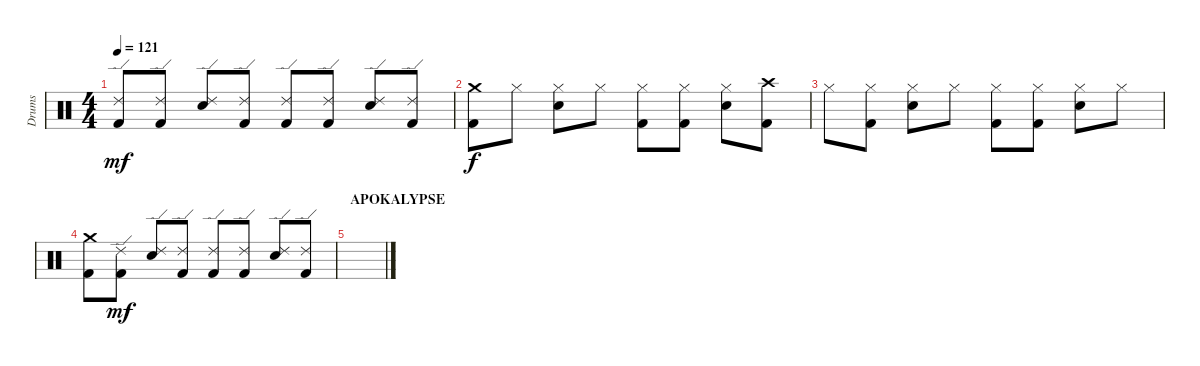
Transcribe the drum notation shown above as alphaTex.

\track ("Drums" "Drums") {instrument percussion}
\staff {score}
\articulation defaults
\ts (4 4)
\tempo 121
\clef neutral
\ks c
("Ride (edge) 2" "Kick (hit) 2").8{dy mf} ("Ride (edge) 2" "Kick (hit) 2").8 ("Ride (edge) 2" "Electric Snare (hit)").8 ("Ride (edge) 2" "Kick (hit) 2").8 ("Ride (edge) 2" "Kick (hit) 2").8 ("Ride (edge) 2" "Kick (hit) 2").8 ("Ride (edge) 2" "Electric Snare (hit)").8 ("Ride (edge) 2" "Kick (hit) 2").8 |
("Crash medium (hit)" "Kick (hit) 2").8{dy f} "Hi-Hat (closed)".8 ("Hi-Hat (closed)" "Electric Snare (hit)").8 "Hi-Hat (closed)".8 ("Hi-Hat (closed)" "Kick (hit) 2").8 ("Hi-Hat (closed)" "Kick (hit) 2").8 ("Hi-Hat (closed)" "Electric Snare (hit)").8 ("Crash high (hit)" "Kick (hit) 2").8 |
"Hi-Hat (closed)".8 ("Hi-Hat (closed)" "Kick (hit) 2").8 ("Hi-Hat (closed)" "Electric Snare (hit)").8 "Hi-Hat (closed)".8 ("Hi-Hat (closed)" "Kick (hit) 2").8 ("Hi-Hat (closed)" "Kick (hit) 2").8 ("Hi-Hat (closed)" "Electric Snare (hit)").8 "Hi-Hat (closed)".8 |
("Crash medium (hit)" "Kick (hit) 2").8 ("Ride (edge) 2" "Kick (hit) 2").8{dy mf} ("Ride (edge) 2" "Electric Snare (hit)").8 ("Ride (edge) 2" "Kick (hit) 2").8 ("Ride (edge) 2" "Kick (hit) 2").8 ("Ride (edge) 2" "Kick (hit) 2").8 ("Ride (edge) 2" "Electric Snare (hit)").8 ("Ride (edge) 2" "Kick (hit) 2").8 |
\section ("" "APOKALYPSE")
